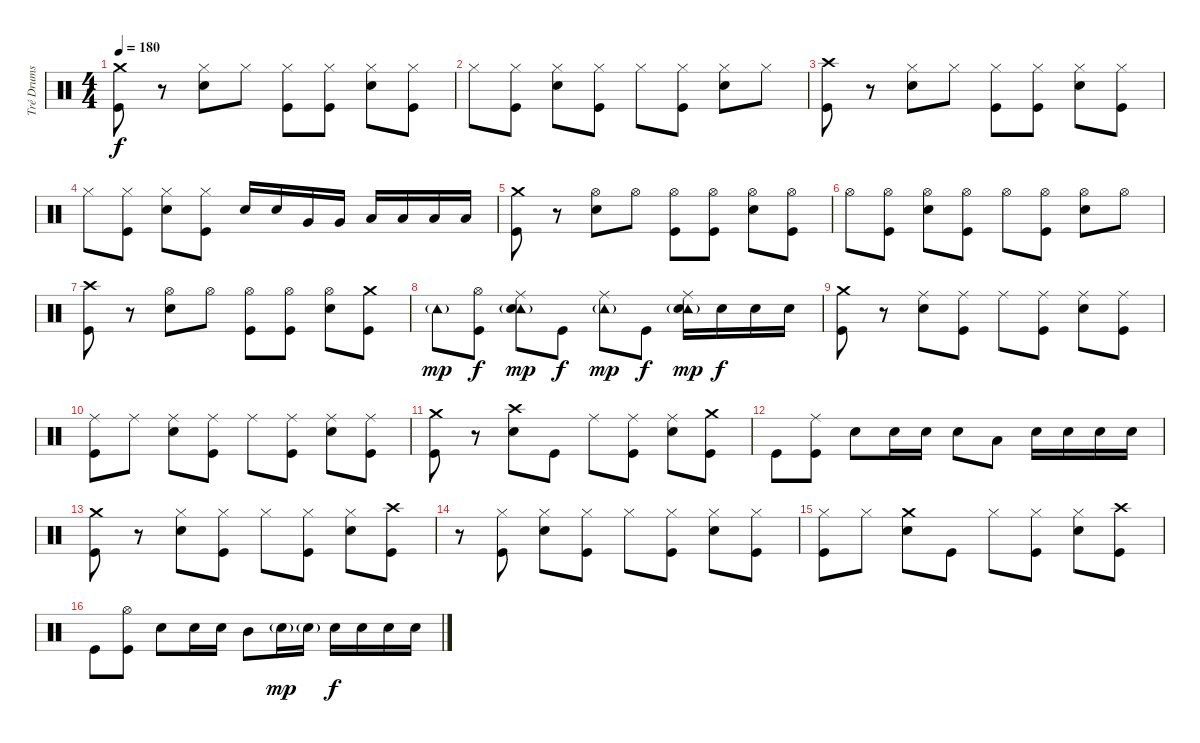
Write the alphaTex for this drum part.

\track ("Tré Drums" "Tré Drums") {instrument percussion}
\staff {score}
\articulation defaults
\ts (4 4)
\tempo 180
\clef neutral
\ks c
("Crash medium (hit)" "Kick (hit)").8{dy f} r.8 ("Hi-Hat (closed)" "Electric Snare (hit)").8 "Hi-Hat (closed)".8 ("Hi-Hat (closed)" "Kick (hit)").8 ("Hi-Hat (closed)" "Kick (hit)").8 ("Hi-Hat (closed)" "Electric Snare (hit)").8 ("Hi-Hat (closed)" "Kick (hit)").8 |
"Hi-Hat (closed)".8 ("Hi-Hat (closed)" "Kick (hit)").8 ("Hi-Hat (closed)" "Electric Snare (hit)").8 ("Hi-Hat (closed)" "Kick (hit)").8 "Hi-Hat (closed)".8 ("Hi-Hat (closed)" "Kick (hit)").8 ("Hi-Hat (closed)" "Electric Snare (hit)").8 "Hi-Hat (closed)".8 |
("Crash high (hit)" "Kick (hit)").8 r.8 ("Hi-Hat (closed)" "Electric Snare (hit)").8 "Hi-Hat (closed)".8 ("Hi-Hat (closed)" "Kick (hit)").8 ("Hi-Hat (closed)" "Kick (hit)").8 ("Hi-Hat (closed)" "Electric Snare (hit)").8 ("Hi-Hat (closed)" "Kick (hit)").8 |
"Hi-Hat (closed)".8 ("Hi-Hat (closed)" "Kick (hit)").8 ("Hi-Hat (closed)" "Electric Snare (hit)").8 ("Hi-Hat (closed)" "Kick (hit)").8 "Electric Snare (hit)".16 "Electric Snare (hit)".16 "Very Low Tom (hit)".16 "Very Low Tom (hit)".16 "Low Tom (hit)".16 "Low Tom (hit)".16 "Low Floor Tom (hit)".16 "Low Floor Tom (hit)".16 |
("Crash medium (hit)" "Kick (hit)").8 r.8 ("Hi-Hat (open)" "Electric Snare (hit)").8 "Hi-Hat (open)".8 ("Hi-Hat (open)" "Kick (hit)").8 ("Hi-Hat (open)" "Kick (hit)").8 ("Hi-Hat (open)" "Electric Snare (hit)").8 ("Hi-Hat (open)" "Kick (hit)").8 |
"Hi-Hat (open)".8 ("Hi-Hat (open)" "Kick (hit)").8 ("Hi-Hat (open)" "Electric Snare (hit)").8 ("Hi-Hat (open)" "Kick (hit)").8 "Hi-Hat (open)".8 ("Hi-Hat (open)" "Kick (hit)").8 ("Hi-Hat (open)" "Electric Snare (hit)").8 "Hi-Hat (open)".8 |
("Crash high (hit)" "Kick (hit)").8 r.8 ("Hi-Hat (open)" "Electric Snare (hit)").8 "Hi-Hat (open)".8 ("Hi-Hat (open)" "Kick (hit)").8 ("Hi-Hat (open)" "Kick (hit)").8 ("Hi-Hat (open)" "Electric Snare (hit)").8 ("Crash medium (hit)" "Kick (hit)").8 |
"Tambourine (hit)"{g}.8{dy mp} ("Hi-Hat (open)" "Kick (hit)").8{dy f} ("Tambourine (hit)"{g} "Ride (middle)" "Electric Snare (hit)").8{dy mp} "Kick (hit)".8{dy f} ("Tambourine (hit)"{g} "Ride (middle)").8{dy mp} "Kick (hit)".8{dy f} ("Tambourine (hit)"{g} "Ride (middle)" "Electric Snare (hit)").16{dy mp} "Electric Snare (hit)".16{dy f} "Electric Snare (hit)".16 "Electric Snare (hit)".16 |
("Crash medium (hit)" "Kick (hit)").8 r.8 ("Ride (middle)" "Electric Snare (hit)").8 ("Ride (middle)" "Kick (hit)").8 "Ride (middle)".8 ("Ride (middle)" "Kick (hit)").8 ("Ride (middle)" "Electric Snare (hit)").8 ("Ride (middle)" "Kick (hit)").8 |
("Ride (middle)" "Kick (hit)").8 "Ride (middle)".8 ("Ride (middle)" "Electric Snare (hit)").8 ("Ride (middle)" "Kick (hit)").8 "Ride (middle)".8 ("Ride (middle)" "Kick (hit)").8 ("Ride (middle)" "Electric Snare (hit)").8 ("Ride (middle)" "Kick (hit)").8 |
("Crash medium (hit)" "Kick (hit)").8 r.8 ("Crash high (hit)" "Electric Snare (hit)").8 "Kick (hit)".8 "Ride (middle)".8 ("Ride (middle)" "Kick (hit)").8 ("Ride (middle)" "Electric Snare (hit)").8 ("Crash medium (hit)" "Kick (hit)").8 |
"Kick (hit)".8 ("Ride (middle)" "Kick (hit)").8 "Electric Snare (hit)".8 "Electric Snare (hit)".16 "Electric Snare (hit)".16 "Electric Snare (hit)".8 "Low Tom (hit)".8 "Electric Snare (hit)".16 "Electric Snare (hit)".16 "Electric Snare (hit)".16 "Electric Snare (hit)".16 |
("Crash medium (hit)" "Kick (hit)").8 r.8 ("Hi-Hat (closed)" "Electric Snare (hit)").8 ("Hi-Hat (closed)" "Kick (hit)").8 "Hi-Hat (closed)".8 ("Hi-Hat (closed)" "Kick (hit)").8 ("Hi-Hat (closed)" "Electric Snare (hit)").8 ("Crash high (hit)" "Kick (hit)").8 |
r.8 ("Hi-Hat (closed)" "Kick (hit)").8 ("Hi-Hat (closed)" "Electric Snare (hit)").8 ("Hi-Hat (closed)" "Kick (hit)").8 "Hi-Hat (closed)".8 ("Hi-Hat (closed)" "Kick (hit)").8 ("Hi-Hat (closed)" "Electric Snare (hit)").8 ("Hi-Hat (closed)" "Kick (hit)").8 |
("Hi-Hat (closed)" "Kick (hit)").8 "Hi-Hat (closed)".8 ("Crash medium (hit)" "Electric Snare (hit)").8 "Kick (hit)".8 "Hi-Hat (closed)".8 ("Hi-Hat (closed)" "Kick (hit)").8 ("Hi-Hat (closed)" "Electric Snare (hit)").8 ("Crash high (hit)" "Kick (hit)").8 |
"Kick (hit)".8 ("Hi-Hat (open)" "Kick (hit)").8 "Electric Snare (hit)".8 "Electric Snare (hit)".16 "Electric Snare (hit)".16 "Mid Tom (hit)".8 "Electric Snare (hit)"{g}.16{dy mp} "Electric Snare (hit)"{g}.16 "Electric Snare (hit)".16{dy f} "Electric Snare (hit)".16 "Electric Snare (hit)".16 "Electric Snare (hit)".16
